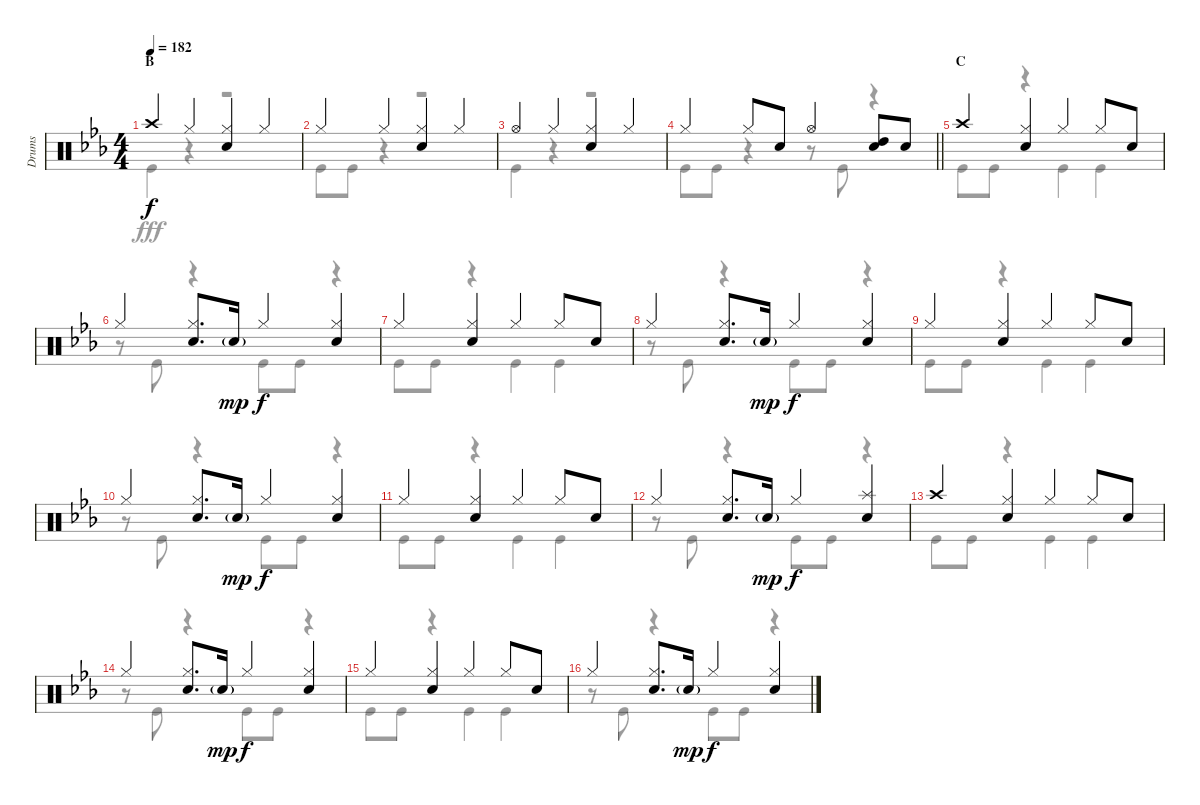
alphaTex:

\track ("Drums" "Drums") {instrument percussion}
\staff {score}
\articulation defaults
\voice
\ts (4 4)
\section ("" "B")
\tempo 182
\clef neutral
\ks eb "Crash high (hit)".4{dy f} "Hi-Hat (closed)".4
("Hi-Hat (closed)" "Snare (hit) 2").4 "Hi-Hat (closed)".4 |
"Hi-Hat (closed)".4 "Hi-Hat (closed)".4 ("Hi-Hat (closed)" "Snare (hit) 2").4 "Hi-Hat (closed)".4 |
"Hi-Hat (open)".4 "Hi-Hat (closed)".4 ("Hi-Hat (closed)" "Snare (hit) 2").4 "Hi-Hat (closed)".4 |
\barLineRight lightlight "Hi-Hat (closed)".4 "Hi-Hat (closed)".8 "Snare (hit) 2".8 "Hi-Hat (open)".4
("High Tom (hit)" "Snare (hit) 2").8 "Snare (hit) 2".8 |
\section ("" "C")
"Crash high (hit)".4 ("Hi-Hat (closed)" "Snare (hit) 2").4 "Hi-Hat (closed)".4 "Hi-Hat (closed)".8 "Snare (hit) 2".8 |
"Hi-Hat (closed)".4 ("Hi-Hat (closed)" "Snare (hit) 2").8{d} "Snare (hit) 2"{g}.16{dy mp} "Hi-Hat (closed)".4{dy f} ("Hi-Hat (closed)" "Snare (hit) 2").4 |
"Hi-Hat (closed)".4 ("Hi-Hat (closed)" "Snare (hit) 2").4 "Hi-Hat (closed)".4 "Hi-Hat (closed)".8 "Snare (hit) 2".8 |
"Hi-Hat (closed)".4 ("Hi-Hat (closed)" "Snare (hit) 2").8{d} "Snare (hit) 2"{g}.16{dy mp} "Hi-Hat (closed)".4{dy f} ("Hi-Hat (closed)" "Snare (hit) 2").4 |
"Hi-Hat (closed)".4 ("Hi-Hat (closed)" "Snare (hit) 2").4 "Hi-Hat (closed)".4 "Hi-Hat (closed)".8 "Snare (hit) 2".8 |
"Hi-Hat (closed)".4 ("Hi-Hat (closed)" "Snare (hit) 2").8{d} "Snare (hit) 2"{g}.16{dy mp} "Hi-Hat (closed)".4{dy f} ("Hi-Hat (closed)" "Snare (hit) 2").4 |
"Hi-Hat (closed)".4 ("Hi-Hat (closed)" "Snare (hit) 2").4 "Hi-Hat (closed)".4 "Hi-Hat (closed)".8 "Snare (hit) 2".8 |
"Hi-Hat (closed)".4 ("Hi-Hat (closed)" "Snare (hit) 2").8{d} "Snare (hit) 2"{g}.16{dy mp} "Hi-Hat (closed)".4{dy f} ("Splash (hit)" "Snare (hit) 2").4 |
"Crash high (hit)".4 ("Hi-Hat (closed)" "Snare (hit) 2").4 "Hi-Hat (closed)".4 "Hi-Hat (closed)".8 "Snare (hit) 2".8 |
"Hi-Hat (closed)".4 ("Hi-Hat (closed)" "Snare (hit) 2").8{d} "Snare (hit) 2"{g}.16{dy mp} "Hi-Hat (closed)".4{dy f} ("Hi-Hat (closed)" "Snare (hit) 2").4 |
"Hi-Hat (closed)".4 ("Hi-Hat (closed)" "Snare (hit) 2").4 "Hi-Hat (closed)".4 "Hi-Hat (closed)".8 "Snare (hit) 2".8 |
"Hi-Hat (closed)".4 ("Hi-Hat (closed)" "Snare (hit) 2").8{d} "Snare (hit) 2"{g}.16{dy mp} "Hi-Hat (closed)".4{dy f} ("Hi-Hat (closed)" "Snare (hit) 2").4
\voice
\clef neutral
\ottava regular
\simile none
\ks eb "Kick (hit)".4{dy fff}
r.4 r.2 |
"Kick (hit)".8 "Kick (hit)".8 r.4 r.2 |
"Kick (hit)".4 r.4 r.2 |
\barLineRight lightlight "Kick (hit)".8 "Kick (hit)".8
r.4 r.8 "Kick (hit)".8 r.4 |
"Kick (hit)".8 "Kick (hit)".8 r.4 "Kick (hit)".4 "Kick (hit)".4 |
r.8 "Kick (hit)".8 r.4 "Kick (hit)".8 "Kick (hit)".8 r.4 |
"Kick (hit)".8 "Kick (hit)".8 r.4 "Kick (hit)".4 "Kick (hit)".4 |
r.8 "Kick (hit)".8 r.4 "Kick (hit)".8 "Kick (hit)".8 r.4 |
"Kick (hit)".8 "Kick (hit)".8 r.4 "Kick (hit)".4 "Kick (hit)".4 |
r.8 "Kick (hit)".8 r.4 "Kick (hit)".8 "Kick (hit)".8 r.4 |
"Kick (hit)".8 "Kick (hit)".8 r.4 "Kick (hit)".4 "Kick (hit)".4 |
r.8 "Kick (hit)".8 r.4 "Kick (hit)".8 "Kick (hit)".8 r.4 |
"Kick (hit)".8 "Kick (hit)".8 r.4 "Kick (hit)".4 "Kick (hit)".4 |
r.8 "Kick (hit)".8 r.4 "Kick (hit)".8 "Kick (hit)".8 r.4 |
"Kick (hit)".8 "Kick (hit)".8 r.4 "Kick (hit)".4 "Kick (hit)".4 |
r.8 "Kick (hit)".8 r.4 "Kick (hit)".8 "Kick (hit)".8 r.4
